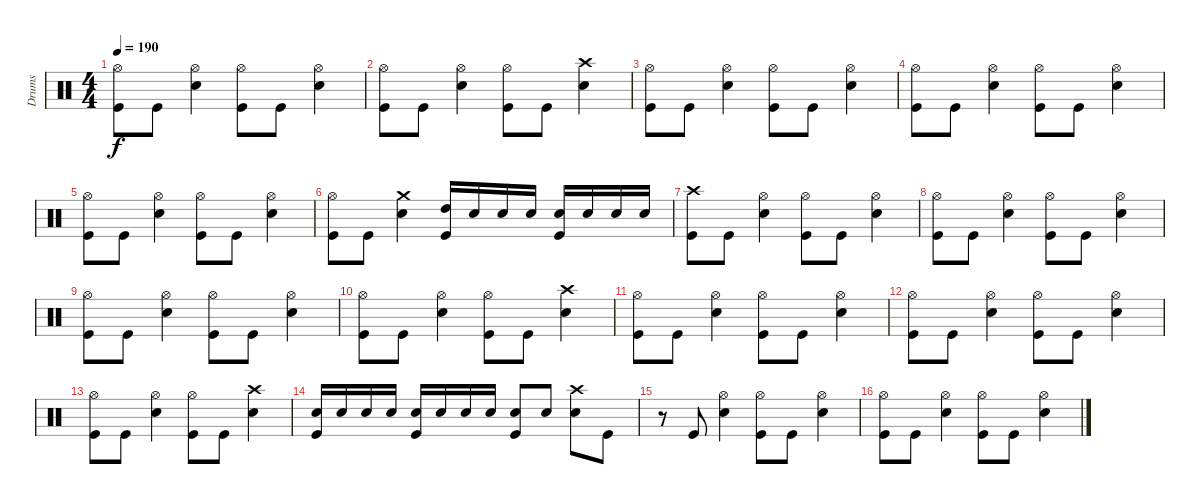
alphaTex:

\track ("Drums" "Drums") {instrument percussion}
\staff {score}
\articulation defaults
\ts (4 4)
\tempo 190
\clef neutral
\ks c
("Kick (hit)" "Hi-Hat (open)").8{dy f} "Kick (hit)".8 ("Electric Snare (hit)" "Hi-Hat (open)").4 ("Kick (hit)" "Hi-Hat (open)").8 "Kick (hit)".8 ("Electric Snare (hit)" "Hi-Hat (open)").4 |
("Kick (hit)" "Hi-Hat (open)").8 "Kick (hit)".8 ("Electric Snare (hit)" "Hi-Hat (open)").4 ("Kick (hit)" "Hi-Hat (open)").8 "Kick (hit)".8 ("Electric Snare (hit)" "Crash high (hit)").4 |
("Kick (hit)" "Hi-Hat (open)").8 "Kick (hit)".8 ("Electric Snare (hit)" "Hi-Hat (open)").4 ("Kick (hit)" "Hi-Hat (open)").8 "Kick (hit)".8 ("Electric Snare (hit)" "Hi-Hat (open)").4 |
("Kick (hit)" "Hi-Hat (open)").8 "Kick (hit)".8 ("Electric Snare (hit)" "Hi-Hat (open)").4 ("Kick (hit)" "Hi-Hat (open)").8 "Kick (hit)".8 ("Electric Snare (hit)" "Hi-Hat (open)").4 |
("Kick (hit)" "Hi-Hat (open)").8 "Kick (hit)".8 ("Electric Snare (hit)" "Hi-Hat (open)").4 ("Kick (hit)" "Hi-Hat (open)").8 "Kick (hit)".8 ("Electric Snare (hit)" "Hi-Hat (open)").4 |
("Kick (hit)" "Hi-Hat (open)").8 "Kick (hit)".8 ("Electric Snare (hit)" "Crash medium (hit)").4 ("Kick (hit)" "High Tom (hit)").16 "Electric Snare (hit)".16 "Electric Snare (hit)".16 "Electric Snare (hit)".16 ("Kick (hit)" "Electric Snare (hit)").16 "Electric Snare (hit)".16 "Electric Snare (hit)".16 "Electric Snare (hit)".16 |
("Kick (hit)" "Crash high (hit)").8 "Kick (hit)".8 ("Electric Snare (hit)" "Hi-Hat (open)").4 ("Kick (hit)" "Hi-Hat (open)").8 "Kick (hit)".8 ("Electric Snare (hit)" "Hi-Hat (open)").4 |
("Kick (hit)" "Hi-Hat (open)").8 "Kick (hit)".8 ("Electric Snare (hit)" "Hi-Hat (open)").4 ("Kick (hit)" "Hi-Hat (open)").8 "Kick (hit)".8 ("Electric Snare (hit)" "Hi-Hat (open)").4 |
("Kick (hit)" "Hi-Hat (open)").8 "Kick (hit)".8 ("Electric Snare (hit)" "Hi-Hat (open)").4 ("Kick (hit)" "Hi-Hat (open)").8 "Kick (hit)".8 ("Electric Snare (hit)" "Hi-Hat (open)").4 |
("Kick (hit)" "Hi-Hat (open)").8 "Kick (hit)".8 ("Electric Snare (hit)" "Hi-Hat (open)").4 ("Kick (hit)" "Hi-Hat (open)").8 "Kick (hit)".8 ("Electric Snare (hit)" "Crash high (hit)").4 |
("Kick (hit)" "Hi-Hat (open)").8 "Kick (hit)".8 ("Electric Snare (hit)" "Hi-Hat (open)").4 ("Kick (hit)" "Hi-Hat (open)").8 "Kick (hit)".8 ("Electric Snare (hit)" "Hi-Hat (open)").4 |
("Kick (hit)" "Hi-Hat (open)").8 "Kick (hit)".8 ("Electric Snare (hit)" "Hi-Hat (open)").4 ("Kick (hit)" "Hi-Hat (open)").8 "Kick (hit)".8 ("Electric Snare (hit)" "Hi-Hat (open)").4 |
("Kick (hit)" "Hi-Hat (open)").8 "Kick (hit)".8 ("Electric Snare (hit)" "Hi-Hat (open)").4 ("Kick (hit)" "Hi-Hat (open)").8 "Kick (hit)".8 ("Electric Snare (hit)" "Crash high (hit)").4 |
("Kick (hit)" "Electric Snare (hit)").16 "Electric Snare (hit)".16 "Electric Snare (hit)".16 "Electric Snare (hit)".16 ("Kick (hit)" "Electric Snare (hit)").16 "Electric Snare (hit)".16 "Electric Snare (hit)".16 "Electric Snare (hit)".16 ("Kick (hit)" "Electric Snare (hit)").8 "Electric Snare (hit)".8 ("Electric Snare (hit)" "Crash high (hit)").8 "Kick (hit)".8 |
r.8 "Kick (hit)".8 ("Electric Snare (hit)" "Hi-Hat (open)").4 ("Kick (hit)" "Hi-Hat (open)").8 "Kick (hit)".8 ("Electric Snare (hit)" "Hi-Hat (open)").4 |
("Kick (hit)" "Hi-Hat (open)").8 "Kick (hit)".8 ("Electric Snare (hit)" "Hi-Hat (open)").4 ("Kick (hit)" "Hi-Hat (open)").8 "Kick (hit)".8 ("Electric Snare (hit)" "Hi-Hat (open)").4
